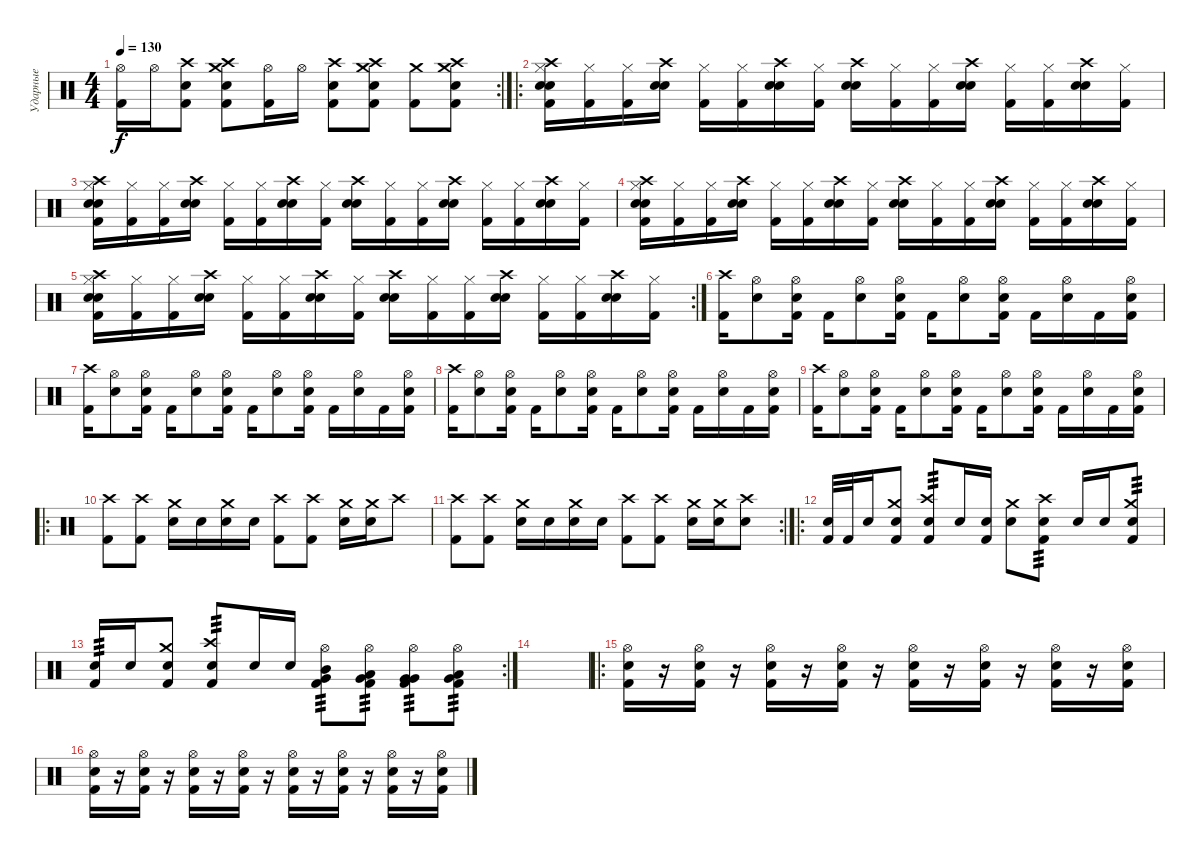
\track ("Ударные" "Ударные") {instrument percussion}
\staff {score}
\articulation defaults
\rc 2
\ts (4 4)
\tempo 130
\clef neutral
\ks c
("Hi-Hat (open)" "Kick (hit) 2").16{dy f} "Hi-Hat (open)".16 ("Crash high (hit)" "Electric Snare (hit)" "Kick (hit) 2").8 ("Crash medium (hit)" "Crash high (hit)" "Electric Snare (hit)" "Kick (hit) 2").8 ("Hi-Hat (open)" "Kick (hit) 2").16 "Hi-Hat (open)".16 ("Crash high (hit)" "Electric Snare (hit)" "Kick (hit) 2").8 ("Crash medium (hit)" "Crash high (hit)" "Electric Snare (hit)" "Kick (hit) 2").8 ("Crash medium (hit)" "Kick (hit) 2").8 ("Crash medium (hit)" "Crash high (hit)" "Electric Snare (hit)" "Kick (hit) 2").8 |
\ro
("Crash high (hit)" "Electric Snare (hit)" "Snare (hit) 2" "Hi-Hat (closed)" "Kick (hit) 2").16 ("Hi-Hat (closed)" "Kick (hit) 2").16 ("Hi-Hat (closed)" "Kick (hit) 2").16 ("Crash high (hit)" "Electric Snare (hit)" "Snare (hit) 2").16 ("Hi-Hat (closed)" "Kick (hit) 2").16 ("Hi-Hat (closed)" "Kick (hit) 2").16 ("Crash high (hit)" "Electric Snare (hit)" "Snare (hit) 2").16 ("Hi-Hat (closed)" "Kick (hit) 2").16 ("Crash high (hit)" "Electric Snare (hit)" "Snare (hit) 2").16 ("Hi-Hat (closed)" "Kick (hit) 2").16 ("Hi-Hat (closed)" "Kick (hit) 2").16 ("Crash high (hit)" "Electric Snare (hit)" "Snare (hit) 2").16 ("Hi-Hat (closed)" "Kick (hit) 2").16 ("Hi-Hat (closed)" "Kick (hit) 2").16 ("Crash high (hit)" "Electric Snare (hit)" "Snare (hit) 2").16 ("Hi-Hat (closed)" "Kick (hit) 2").16 |
("Crash high (hit)" "Electric Snare (hit)" "Snare (hit) 2" "Hi-Hat (closed)" "Kick (hit) 2").16 ("Hi-Hat (closed)" "Kick (hit) 2").16 ("Hi-Hat (closed)" "Kick (hit) 2").16 ("Crash high (hit)" "Electric Snare (hit)" "Snare (hit) 2").16 ("Hi-Hat (closed)" "Kick (hit) 2").16 ("Hi-Hat (closed)" "Kick (hit) 2").16 ("Crash high (hit)" "Electric Snare (hit)" "Snare (hit) 2").16 ("Hi-Hat (closed)" "Kick (hit) 2").16 ("Crash high (hit)" "Electric Snare (hit)" "Snare (hit) 2").16 ("Hi-Hat (closed)" "Kick (hit) 2").16 ("Hi-Hat (closed)" "Kick (hit) 2").16 ("Crash high (hit)" "Electric Snare (hit)" "Snare (hit) 2").16 ("Hi-Hat (closed)" "Kick (hit) 2").16 ("Hi-Hat (closed)" "Kick (hit) 2").16 ("Crash high (hit)" "Electric Snare (hit)" "Snare (hit) 2").16 ("Hi-Hat (closed)" "Kick (hit) 2").16 |
("Crash high (hit)" "Electric Snare (hit)" "Snare (hit) 2" "Hi-Hat (closed)" "Kick (hit) 2").16 ("Hi-Hat (closed)" "Kick (hit) 2").16 ("Hi-Hat (closed)" "Kick (hit) 2").16 ("Crash high (hit)" "Electric Snare (hit)" "Snare (hit) 2").16 ("Hi-Hat (closed)" "Kick (hit) 2").16 ("Hi-Hat (closed)" "Kick (hit) 2").16 ("Crash high (hit)" "Electric Snare (hit)" "Snare (hit) 2").16 ("Hi-Hat (closed)" "Kick (hit) 2").16 ("Crash high (hit)" "Electric Snare (hit)" "Snare (hit) 2").16 ("Hi-Hat (closed)" "Kick (hit) 2").16 ("Hi-Hat (closed)" "Kick (hit) 2").16 ("Crash high (hit)" "Electric Snare (hit)" "Snare (hit) 2").16 ("Hi-Hat (closed)" "Kick (hit) 2").16 ("Hi-Hat (closed)" "Kick (hit) 2").16 ("Crash high (hit)" "Electric Snare (hit)" "Snare (hit) 2").16 ("Hi-Hat (closed)" "Kick (hit) 2").16 |
\rc 2
("Crash high (hit)" "Electric Snare (hit)" "Snare (hit) 2" "Hi-Hat (closed)" "Kick (hit) 2").16 ("Hi-Hat (closed)" "Kick (hit) 2").16 ("Hi-Hat (closed)" "Kick (hit) 2").16 ("Crash high (hit)" "Electric Snare (hit)" "Snare (hit) 2").16 ("Hi-Hat (closed)" "Kick (hit) 2").16 ("Hi-Hat (closed)" "Kick (hit) 2").16 ("Crash high (hit)" "Electric Snare (hit)" "Snare (hit) 2").16 ("Hi-Hat (closed)" "Kick (hit) 2").16 ("Crash high (hit)" "Electric Snare (hit)" "Snare (hit) 2").16 ("Hi-Hat (closed)" "Kick (hit) 2").16 ("Hi-Hat (closed)" "Kick (hit) 2").16 ("Crash high (hit)" "Electric Snare (hit)" "Snare (hit) 2").16 ("Hi-Hat (closed)" "Kick (hit) 2").16 ("Hi-Hat (closed)" "Kick (hit) 2").16 ("Crash high (hit)" "Electric Snare (hit)" "Snare (hit) 2").16 ("Hi-Hat (closed)" "Kick (hit) 2").16 |
("Crash high (hit)" "Kick (hit) 2").16 ("Hi-Hat (open)" "Electric Snare (hit)").8 ("Hi-Hat (open)" "Electric Snare (hit)" "Kick (hit) 2").16 "Kick (hit) 2".16 ("Hi-Hat (open)" "Electric Snare (hit)").8 ("Hi-Hat (open)" "Electric Snare (hit)" "Kick (hit) 2").16 "Kick (hit) 2".16 ("Hi-Hat (open)" "Electric Snare (hit)").8 ("Hi-Hat (open)" "Electric Snare (hit)" "Kick (hit) 2").16 "Kick (hit) 2".16 ("Hi-Hat (open)" "Electric Snare (hit)").16 "Kick (hit) 2".16 ("Hi-Hat (open)" "Electric Snare (hit)" "Kick (hit) 2").16 |
("Crash high (hit)" "Kick (hit) 2").16 ("Hi-Hat (open)" "Electric Snare (hit)").8 ("Hi-Hat (open)" "Electric Snare (hit)" "Kick (hit) 2").16 "Kick (hit) 2".16 ("Hi-Hat (open)" "Electric Snare (hit)").8 ("Hi-Hat (open)" "Electric Snare (hit)" "Kick (hit) 2").16 "Kick (hit) 2".16 ("Hi-Hat (open)" "Electric Snare (hit)").8 ("Hi-Hat (open)" "Electric Snare (hit)" "Kick (hit) 2").16 "Kick (hit) 2".16 ("Hi-Hat (open)" "Electric Snare (hit)").16 "Kick (hit) 2".16 ("Hi-Hat (open)" "Electric Snare (hit)" "Kick (hit) 2").16 |
("Crash high (hit)" "Kick (hit) 2").16 ("Hi-Hat (open)" "Electric Snare (hit)").8 ("Hi-Hat (open)" "Electric Snare (hit)" "Kick (hit) 2").16 "Kick (hit) 2".16 ("Hi-Hat (open)" "Electric Snare (hit)").8 ("Hi-Hat (open)" "Electric Snare (hit)" "Kick (hit) 2").16 "Kick (hit) 2".16 ("Hi-Hat (open)" "Electric Snare (hit)").8 ("Hi-Hat (open)" "Electric Snare (hit)" "Kick (hit) 2").16 "Kick (hit) 2".16 ("Hi-Hat (open)" "Electric Snare (hit)").16 "Kick (hit) 2".16 ("Hi-Hat (open)" "Electric Snare (hit)" "Kick (hit) 2").16 |
("Crash high (hit)" "Kick (hit) 2").16 ("Hi-Hat (open)" "Electric Snare (hit)").8 ("Hi-Hat (open)" "Electric Snare (hit)" "Kick (hit) 2").16 "Kick (hit) 2".16 ("Hi-Hat (open)" "Electric Snare (hit)").8 ("Hi-Hat (open)" "Electric Snare (hit)" "Kick (hit) 2").16 "Kick (hit) 2".16 ("Hi-Hat (open)" "Electric Snare (hit)").8 ("Hi-Hat (open)" "Electric Snare (hit)" "Kick (hit) 2").16 "Kick (hit) 2".16 ("Hi-Hat (open)" "Electric Snare (hit)").16 "Kick (hit) 2".16 ("Hi-Hat (open)" "Electric Snare (hit)" "Kick (hit) 2").16 |
\ro
("Crash high (hit)" "Kick (hit) 2").8 ("Crash high (hit)" "Kick (hit) 2").8 ("Crash medium (hit)" "Snare (hit) 2").16 "Snare (hit) 2".16 ("Crash medium (hit)" "Snare (hit) 2").16 "Snare (hit) 2".16 ("Crash high (hit)" "Kick (hit) 2").8 ("Crash high (hit)" "Kick (hit) 2").8 ("Crash medium (hit)" "Snare (hit) 2").16 ("Crash medium (hit)" "Snare (hit) 2").16 "Crash high (hit)".8 |
\rc 2
("Crash high (hit)" "Kick (hit) 2").8 ("Crash high (hit)" "Kick (hit) 2").8 ("Crash medium (hit)" "Snare (hit) 2").16 "Snare (hit) 2".16 ("Crash medium (hit)" "Snare (hit) 2").16 "Snare (hit) 2".16 ("Crash high (hit)" "Kick (hit) 2").8 ("Crash high (hit)" "Kick (hit) 2").8 ("Crash medium (hit)" "Snare (hit) 2").16 ("Crash medium (hit)" "Snare (hit) 2").16 ("Crash high (hit)" "Snare (hit) 2").8 |
\ro
("Snare (hit) 2" "Kick (hit) 2").32 "Kick (hit) 2".32 "Snare (hit) 2".16 ("Crash medium (hit)" "Snare (hit) 2" "Kick (hit) 2").8 ("Crash high (hit)" "Snare (hit) 2" "Kick (hit) 2").8{tp 3} "Snare (hit) 2".16 ("Snare (hit) 2" "Kick (hit) 2").16 ("Crash medium (hit)" "Snare (hit) 2").8 ("Crash high (hit)" "Snare (hit) 2" "Kick (hit) 2").8{tp 3} "Snare (hit) 2".16 "Snare (hit) 2".16 ("Crash medium (hit)" "Snare (hit) 2" "Kick (hit) 2").8{tp 3} |
\rc 2
("Snare (hit) 2" "Kick (hit) 2").16{tp 3} "Snare (hit) 2".16 ("Crash medium (hit)" "Snare (hit) 2" "Kick (hit) 2").8 ("Crash high (hit)" "Snare (hit) 2" "Kick (hit) 2").8{tp 3} "Snare (hit) 2".16 "Snare (hit) 2".16 ("Hi-Hat (open)" "Mid Tom (hit)" "Very Low Tom (hit)" "Kick (hit) 2").8{tp 3} ("Hi-Hat (open)" "Low Tom (hit)" "Very Low Tom (hit)" "Kick (hit) 2").8{tp 3} ("Hi-Hat (open)" "Very Low Tom (hit)" "Very Low Tom (hit)" "Kick (hit) 2").8{tp 3} ("Hi-Hat (open)" "Low Floor Tom (hit)" "Very Low Tom (hit)" "Kick (hit) 2").8{tp 3} |
|
\ro
("Hi-Hat (open)" "Electric Snare (hit)" "Kick (hit) 2").16 r.16 ("Hi-Hat (open)" "Electric Snare (hit)" "Kick (hit) 2").16 r.16 ("Hi-Hat (open)" "Electric Snare (hit)" "Kick (hit) 2").16 r.16 ("Hi-Hat (open)" "Electric Snare (hit)" "Kick (hit) 2").16 r.16 ("Hi-Hat (open)" "Electric Snare (hit)" "Kick (hit) 2").16 r.16 ("Hi-Hat (open)" "Electric Snare (hit)" "Kick (hit) 2").16 r.16 ("Hi-Hat (open)" "Electric Snare (hit)" "Kick (hit) 2").16 r.16 ("Hi-Hat (open)" "Electric Snare (hit)" "Kick (hit) 2").16 |
("Hi-Hat (open)" "Electric Snare (hit)" "Kick (hit) 2").16 r.16 ("Hi-Hat (open)" "Electric Snare (hit)" "Kick (hit) 2").16 r.16 ("Hi-Hat (open)" "Electric Snare (hit)" "Kick (hit) 2").16 r.16 ("Hi-Hat (open)" "Electric Snare (hit)" "Kick (hit) 2").16 r.16 ("Hi-Hat (open)" "Electric Snare (hit)" "Kick (hit) 2").16 r.16 ("Hi-Hat (open)" "Electric Snare (hit)" "Kick (hit) 2").16 r.16 ("Hi-Hat (open)" "Electric Snare (hit)" "Kick (hit) 2").16 r.16 ("Hi-Hat (open)" "Electric Snare (hit)" "Kick (hit) 2").16
